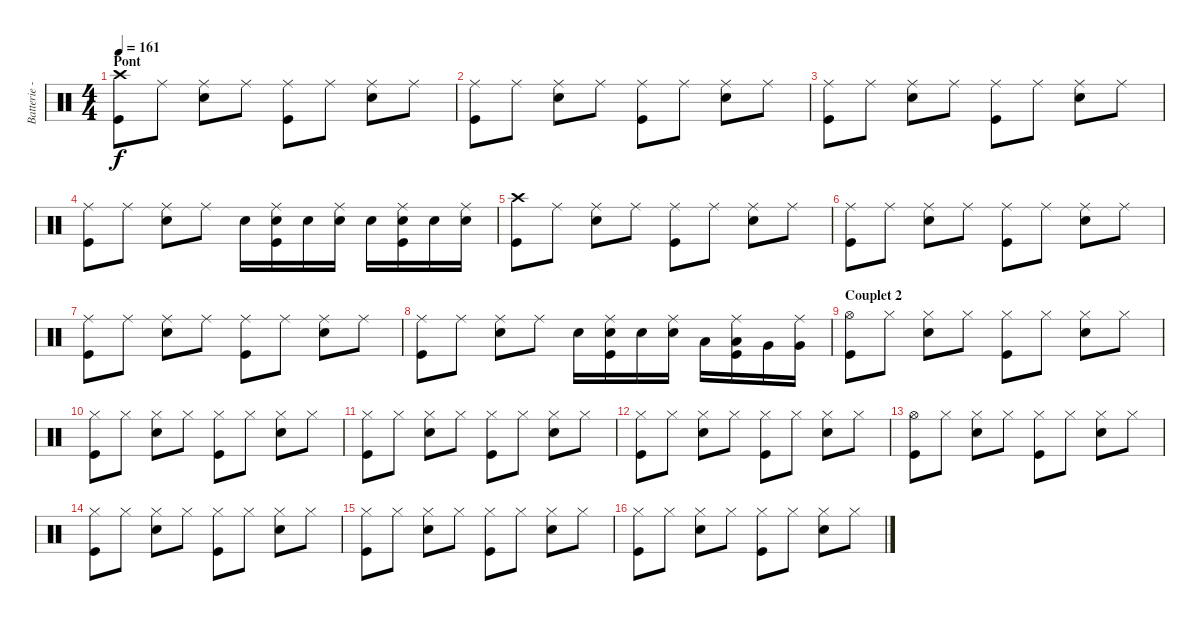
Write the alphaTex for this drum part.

\track ("Batterie - Alex" "Batterie -") {instrument percussion}
\staff {score}
\articulation defaults
\ts (4 4)
\section ("" "Pont")
\tempo 161
\clef neutral
\ks c
("Crash high (hit)" "Kick (hit)").8{dy f} "Ride (middle)".8 ("Ride (middle)" "Electric Snare (hit)").8 "Ride (middle)".8 ("Ride (middle)" "Kick (hit)").8 "Ride (middle)".8 ("Ride (middle)" "Electric Snare (hit)").8 "Ride (middle)".8 |
("Ride (middle)" "Kick (hit)").8 "Ride (middle)".8 ("Ride (middle)" "Electric Snare (hit)").8 "Ride (middle)".8 ("Ride (middle)" "Kick (hit)").8 "Ride (middle)".8 ("Ride (middle)" "Electric Snare (hit)").8 "Ride (middle)".8 |
("Ride (middle)" "Kick (hit)").8 "Ride (middle)".8 ("Ride (middle)" "Electric Snare (hit)").8 "Ride (middle)".8 ("Ride (middle)" "Kick (hit)").8 "Ride (middle)".8 ("Ride (middle)" "Electric Snare (hit)").8 "Ride (middle)".8 |
("Ride (middle)" "Kick (hit)").8 "Ride (middle)".8 ("Ride (middle)" "Electric Snare (hit)").8 "Ride (middle)".8 "Electric Snare (hit)".16 ("Ride (middle)" "Electric Snare (hit)" "Kick (hit)").16 "Electric Snare (hit)".16 ("Ride (middle)" "Electric Snare (hit)").16 "Electric Snare (hit)".16 ("Ride (middle)" "Electric Snare (hit)" "Kick (hit)").16 "Electric Snare (hit)".16 ("Ride (middle)" "Electric Snare (hit)").16 |
("Crash high (hit)" "Kick (hit)").8 "Ride (middle)".8 ("Ride (middle)" "Electric Snare (hit)").8 "Ride (middle)".8 ("Ride (middle)" "Kick (hit)").8 "Ride (middle)".8 ("Ride (middle)" "Electric Snare (hit)").8 "Ride (middle)".8 |
("Ride (middle)" "Kick (hit)").8 "Ride (middle)".8 ("Ride (middle)" "Electric Snare (hit)").8 "Ride (middle)".8 ("Ride (middle)" "Kick (hit)").8 "Ride (middle)".8 ("Ride (middle)" "Electric Snare (hit)").8 "Ride (middle)".8 |
("Ride (middle)" "Kick (hit)").8 "Ride (middle)".8 ("Ride (middle)" "Electric Snare (hit)").8 "Ride (middle)".8 ("Ride (middle)" "Kick (hit)").8 "Ride (middle)".8 ("Ride (middle)" "Electric Snare (hit)").8 "Ride (middle)".8 |
("Ride (middle)" "Kick (hit)").8 "Ride (middle)".8 ("Ride (middle)" "Electric Snare (hit)").8 "Ride (middle)".8 "Electric Snare (hit)".16 ("Ride (middle)" "Electric Snare (hit)" "Kick (hit)").16 "Electric Snare (hit)".16 ("Ride (middle)" "Electric Snare (hit)").16 "Low Floor Tom (hit)".16 ("Ride (middle)" "Low Floor Tom (hit)" "Kick (hit)").16 "Very Low Tom (hit)".16 ("Ride (middle)" "Very Low Tom (hit)").16 |
\section ("" "Couplet 2")
("Hi-Hat (open)" "Kick (hit)").8 "Hi-Hat (closed)".8 ("Hi-Hat (closed)" "Snare (hit) 2").8 "Hi-Hat (closed)".8 ("Hi-Hat (closed)" "Kick (hit)").8 "Hi-Hat (closed)".8 ("Hi-Hat (closed)" "Snare (hit) 2").8 "Hi-Hat (closed)".8 |
("Hi-Hat (closed)" "Kick (hit)").8 "Hi-Hat (closed)".8 ("Hi-Hat (closed)" "Snare (hit) 2").8 "Hi-Hat (closed)".8 ("Hi-Hat (closed)" "Kick (hit)").8 "Hi-Hat (closed)".8 ("Hi-Hat (closed)" "Snare (hit) 2").8 "Hi-Hat (closed)".8 |
("Hi-Hat (closed)" "Kick (hit)").8 "Hi-Hat (closed)".8 ("Hi-Hat (closed)" "Snare (hit) 2").8 "Hi-Hat (closed)".8 ("Hi-Hat (closed)" "Kick (hit)").8 "Hi-Hat (closed)".8 ("Hi-Hat (closed)" "Snare (hit) 2").8 "Hi-Hat (closed)".8 |
("Hi-Hat (closed)" "Kick (hit)").8 "Hi-Hat (closed)".8 ("Hi-Hat (closed)" "Snare (hit) 2").8 "Hi-Hat (closed)".8 ("Hi-Hat (closed)" "Kick (hit)").8 "Hi-Hat (closed)".8 ("Hi-Hat (closed)" "Snare (hit) 2").8 "Hi-Hat (closed)".8 |
("Hi-Hat (open)" "Kick (hit)").8 "Hi-Hat (closed)".8 ("Hi-Hat (closed)" "Snare (hit) 2").8 "Hi-Hat (closed)".8 ("Hi-Hat (closed)" "Kick (hit)").8 "Hi-Hat (closed)".8 ("Hi-Hat (closed)" "Snare (hit) 2").8 "Hi-Hat (closed)".8 |
("Hi-Hat (closed)" "Kick (hit)").8 "Hi-Hat (closed)".8 ("Hi-Hat (closed)" "Snare (hit) 2").8 "Hi-Hat (closed)".8 ("Hi-Hat (closed)" "Kick (hit)").8 "Hi-Hat (closed)".8 ("Hi-Hat (closed)" "Snare (hit) 2").8 "Hi-Hat (closed)".8 |
("Hi-Hat (closed)" "Kick (hit)").8 "Hi-Hat (closed)".8 ("Hi-Hat (closed)" "Snare (hit) 2").8 "Hi-Hat (closed)".8 ("Hi-Hat (closed)" "Kick (hit)").8 "Hi-Hat (closed)".8 ("Hi-Hat (closed)" "Snare (hit) 2").8 "Hi-Hat (closed)".8 |
("Hi-Hat (closed)" "Kick (hit)").8 "Hi-Hat (closed)".8 ("Hi-Hat (closed)" "Snare (hit) 2").8 "Hi-Hat (closed)".8 ("Hi-Hat (closed)" "Kick (hit)").8 "Hi-Hat (closed)".8 ("Hi-Hat (closed)" "Snare (hit) 2").8 "Hi-Hat (closed)".8
